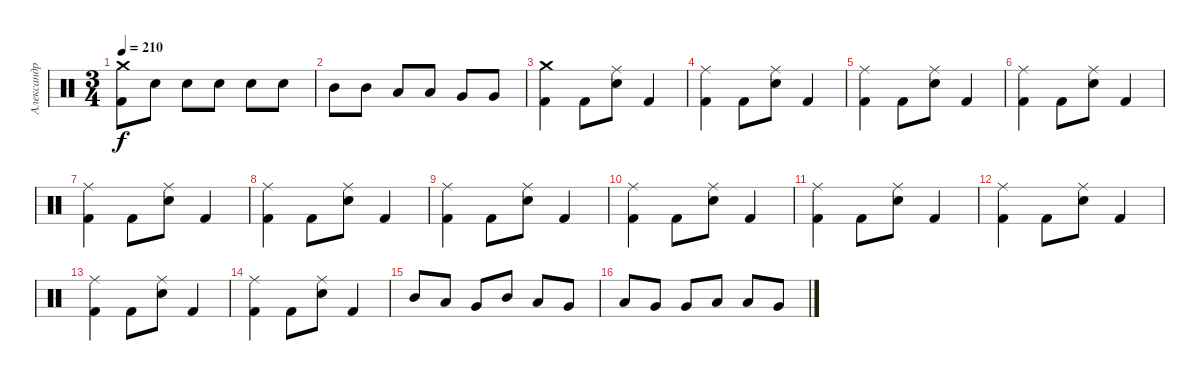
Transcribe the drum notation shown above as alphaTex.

\track ("Александр Манякин" "Александр ") {instrument percussion}
\staff {score}
\articulation defaults
\ts (3 4)
\tempo 210
\clef neutral
\ks c
("Crash medium (hit)" "Kick (hit) 2").8{dy f} "Snare (hit) 2".8 "Snare (hit) 2".8 "Snare (hit) 2".8 "Snare (hit) 2".8 "Snare (hit) 2".8 |
"Mid Tom (hit)".8 "Mid Tom (hit)".8 "Low Tom (hit)".8 "Low Tom (hit)".8 "Very Low Tom (hit)".8 "Very Low Tom (hit)".8 |
("Crash medium (hit)" "Kick (hit) 2").4 "Kick (hit) 2".8 ("Ride (middle)" "Snare (hit) 2").8 "Kick (hit) 2".4 |
("Ride (middle)" "Kick (hit) 2").4 "Kick (hit) 2".8 ("Ride (middle)" "Snare (hit) 2").8 "Kick (hit) 2".4 |
("Ride (middle)" "Kick (hit) 2").4 "Kick (hit) 2".8 ("Ride (middle)" "Snare (hit) 2").8 "Kick (hit) 2".4 |
("Ride (middle)" "Kick (hit) 2").4 "Kick (hit) 2".8 ("Ride (middle)" "Snare (hit) 2").8 "Kick (hit) 2".4 |
("Ride (middle)" "Kick (hit) 2").4 "Kick (hit) 2".8 ("Ride (middle)" "Snare (hit) 2").8 "Kick (hit) 2".4 |
("Ride (middle)" "Kick (hit) 2").4 "Kick (hit) 2".8 ("Ride (middle)" "Snare (hit) 2").8 "Kick (hit) 2".4 |
("Ride (middle)" "Kick (hit) 2").4 "Kick (hit) 2".8 ("Ride (middle)" "Snare (hit) 2").8 "Kick (hit) 2".4 |
("Ride (middle)" "Kick (hit) 2").4 "Kick (hit) 2".8 ("Ride (middle)" "Snare (hit) 2").8 "Kick (hit) 2".4 |
("Ride (middle)" "Kick (hit) 2").4 "Kick (hit) 2".8 ("Ride (middle)" "Snare (hit) 2").8 "Kick (hit) 2".4 |
("Ride (middle)" "Kick (hit) 2").4 "Kick (hit) 2".8 ("Ride (middle)" "Snare (hit) 2").8 "Kick (hit) 2".4 |
("Ride (middle)" "Kick (hit) 2").4 "Kick (hit) 2".8 ("Ride (middle)" "Snare (hit) 2").8 "Kick (hit) 2".4 |
("Ride (middle)" "Kick (hit) 2").4 "Kick (hit) 2".8 ("Ride (middle)" "Snare (hit) 2").8 "Kick (hit) 2".4 |
"Mid Tom (hit)".8 "Low Tom (hit)".8 "Very Low Tom (hit)".8 "Mid Tom (hit)".8 "Low Tom (hit)".8 "Very Low Tom (hit)".8 |
"Low Tom (hit)".8 "Very Low Tom (hit)".8 "Very Low Tom (hit)".8 "Low Tom (hit)".8 "Low Tom (hit)".8 "Very Low Tom (hit)".8
